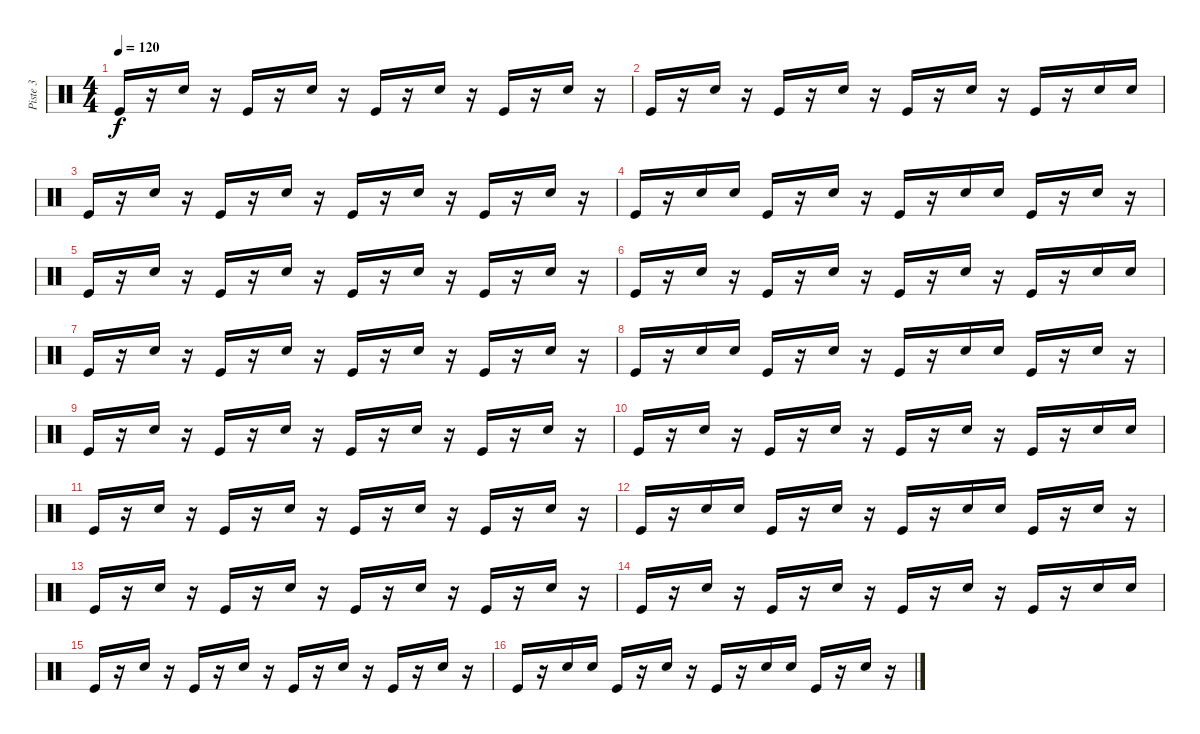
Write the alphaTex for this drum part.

\track ("Piste 3" "Piste 3") {instrument percussion}
\staff {score}
\articulation defaults
\ts (4 4)
\tempo 120
\clef neutral
\ks c "Kick (hit)".16{dy f}
r.16 "Snare (hit) 2".16 r.16 "Kick (hit)".16 r.16 "Snare (hit) 2".16 r.16 "Kick (hit)".16 r.16 "Snare (hit) 2".16 r.16 "Kick (hit)".16 r.16 "Snare (hit) 2".16 r.16 |
"Kick (hit)".16 r.16 "Snare (hit) 2".16 r.16 "Kick (hit)".16 r.16 "Snare (hit) 2".16 r.16 "Kick (hit)".16 r.16 "Snare (hit) 2".16 r.16 "Kick (hit)".16 r.16 "Snare (hit) 2".16 "Snare (hit) 2".16 |
"Kick (hit)".16 r.16 "Snare (hit) 2".16 r.16 "Kick (hit)".16 r.16 "Snare (hit) 2".16 r.16 "Kick (hit)".16 r.16 "Snare (hit) 2".16 r.16 "Kick (hit)".16 r.16 "Snare (hit) 2".16 r.16 |
"Kick (hit)".16 r.16 "Snare (hit) 2".16 "Snare (hit) 2".16 "Kick (hit)".16 r.16 "Snare (hit) 2".16 r.16 "Kick (hit)".16 r.16 "Snare (hit) 2".16 "Snare (hit) 2".16 "Kick (hit)".16 r.16 "Snare (hit) 2".16 r.16 |
"Kick (hit)".16 r.16 "Snare (hit) 2".16 r.16 "Kick (hit)".16 r.16 "Snare (hit) 2".16 r.16 "Kick (hit)".16 r.16 "Snare (hit) 2".16 r.16 "Kick (hit)".16 r.16 "Snare (hit) 2".16 r.16 |
"Kick (hit)".16 r.16 "Snare (hit) 2".16 r.16 "Kick (hit)".16 r.16 "Snare (hit) 2".16 r.16 "Kick (hit)".16 r.16 "Snare (hit) 2".16 r.16 "Kick (hit)".16 r.16 "Snare (hit) 2".16 "Snare (hit) 2".16 |
"Kick (hit)".16 r.16 "Snare (hit) 2".16 r.16 "Kick (hit)".16 r.16 "Snare (hit) 2".16 r.16 "Kick (hit)".16 r.16 "Snare (hit) 2".16 r.16 "Kick (hit)".16 r.16 "Snare (hit) 2".16 r.16 |
"Kick (hit)".16 r.16 "Snare (hit) 2".16 "Snare (hit) 2".16 "Kick (hit)".16 r.16 "Snare (hit) 2".16 r.16 "Kick (hit)".16 r.16 "Snare (hit) 2".16 "Snare (hit) 2".16 "Kick (hit)".16 r.16 "Snare (hit) 2".16 r.16 |
"Kick (hit)".16 r.16 "Snare (hit) 2".16 r.16 "Kick (hit)".16 r.16 "Snare (hit) 2".16 r.16 "Kick (hit)".16 r.16 "Snare (hit) 2".16 r.16 "Kick (hit)".16 r.16 "Snare (hit) 2".16 r.16 |
"Kick (hit)".16 r.16 "Snare (hit) 2".16 r.16 "Kick (hit)".16 r.16 "Snare (hit) 2".16 r.16 "Kick (hit)".16 r.16 "Snare (hit) 2".16 r.16 "Kick (hit)".16 r.16 "Snare (hit) 2".16 "Snare (hit) 2".16 |
"Kick (hit)".16 r.16 "Snare (hit) 2".16 r.16 "Kick (hit)".16 r.16 "Snare (hit) 2".16 r.16 "Kick (hit)".16 r.16 "Snare (hit) 2".16 r.16 "Kick (hit)".16 r.16 "Snare (hit) 2".16 r.16 |
"Kick (hit)".16 r.16 "Snare (hit) 2".16 "Snare (hit) 2".16 "Kick (hit)".16 r.16 "Snare (hit) 2".16 r.16 "Kick (hit)".16 r.16 "Snare (hit) 2".16 "Snare (hit) 2".16 "Kick (hit)".16 r.16 "Snare (hit) 2".16 r.16 |
"Kick (hit)".16 r.16 "Snare (hit) 2".16 r.16 "Kick (hit)".16 r.16 "Snare (hit) 2".16 r.16 "Kick (hit)".16 r.16 "Snare (hit) 2".16 r.16 "Kick (hit)".16 r.16 "Snare (hit) 2".16 r.16 |
"Kick (hit)".16 r.16 "Snare (hit) 2".16 r.16 "Kick (hit)".16 r.16 "Snare (hit) 2".16 r.16 "Kick (hit)".16 r.16 "Snare (hit) 2".16 r.16 "Kick (hit)".16 r.16 "Snare (hit) 2".16 "Snare (hit) 2".16 |
"Kick (hit)".16 r.16 "Snare (hit) 2".16 r.16 "Kick (hit)".16 r.16 "Snare (hit) 2".16 r.16 "Kick (hit)".16 r.16 "Snare (hit) 2".16 r.16 "Kick (hit)".16 r.16 "Snare (hit) 2".16 r.16 |
"Kick (hit)".16 r.16 "Snare (hit) 2".16 "Snare (hit) 2".16 "Kick (hit)".16 r.16 "Snare (hit) 2".16 r.16 "Kick (hit)".16 r.16 "Snare (hit) 2".16 "Snare (hit) 2".16 "Kick (hit)".16 r.16 "Snare (hit) 2".16 r.16
